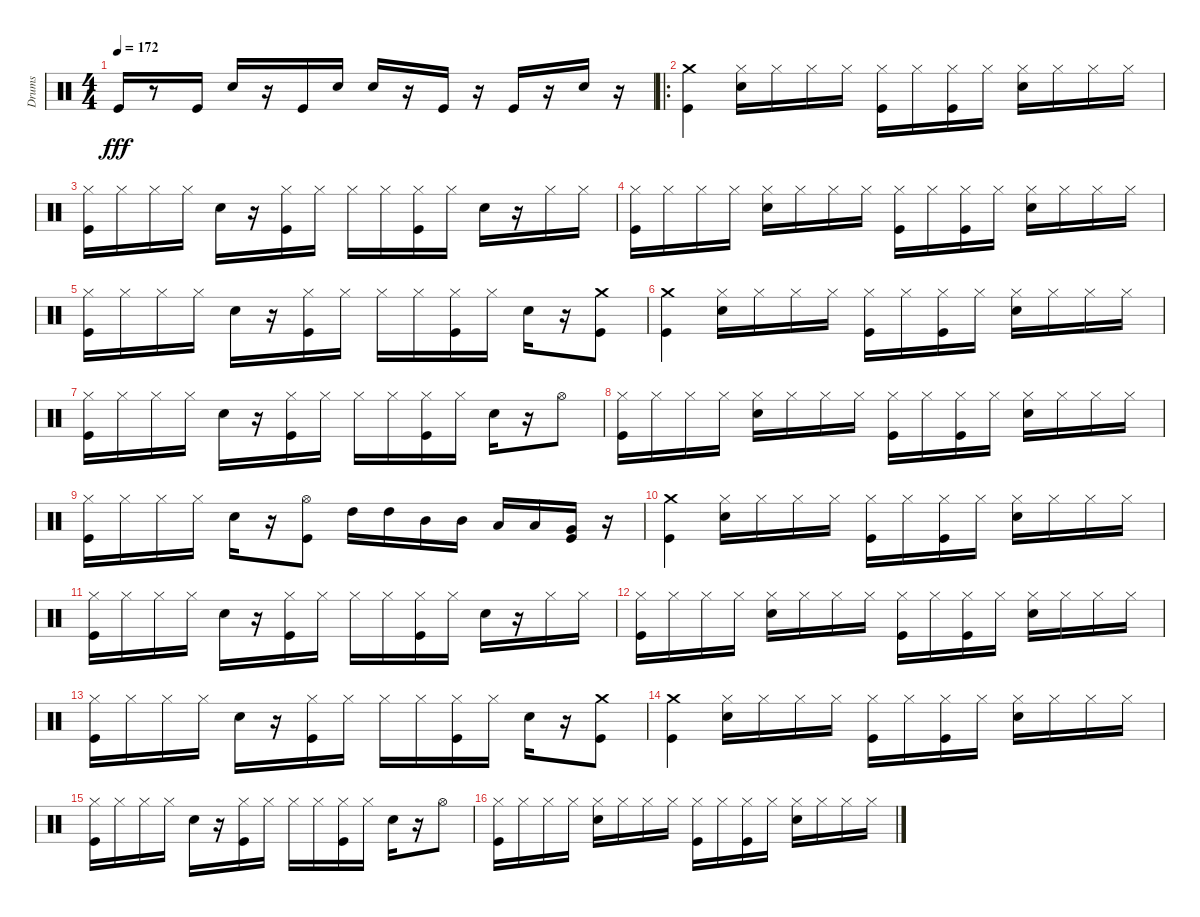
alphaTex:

\track ("Drums" "Drums") {instrument percussion}
\staff {score}
\articulation defaults
\ts (4 4)
\tempo 172
\clef neutral
\ks c "Kick (hit)".16{dy fff}
r.8 "Kick (hit)".16 "Snare (hit) 2".16 r.16 "Kick (hit)".16 "Snare (hit) 2".16 "Snare (hit) 2".16 r.16 "Kick (hit)".16 r.16 "Kick (hit)".16 r.16 "Snare (hit) 2".16 r.16 |
\ro
("Crash medium (hit)" "Kick (hit)").4 ("Hi-Hat (closed)" "Snare (hit) 2").16 "Hi-Hat (closed)".16 "Hi-Hat (closed)".16 "Hi-Hat (closed)".16 ("Hi-Hat (closed)" "Kick (hit)").16 "Hi-Hat (closed)".16 ("Hi-Hat (closed)" "Kick (hit)").16 "Hi-Hat (closed)".16 ("Hi-Hat (closed)" "Snare (hit) 2").16 "Hi-Hat (closed)".16 "Hi-Hat (closed)".16 "Hi-Hat (closed)".16 |
("Hi-Hat (closed)" "Kick (hit)").16 "Hi-Hat (closed)".16 "Hi-Hat (closed)".16 "Hi-Hat (closed)".16 "Snare (hit) 2".16 r.16 ("Hi-Hat (closed)" "Kick (hit)").16 "Hi-Hat (closed)".16 "Hi-Hat (closed)".16 "Hi-Hat (closed)".16 ("Hi-Hat (closed)" "Kick (hit)").16 "Hi-Hat (closed)".16 "Snare (hit) 2".16 r.16 "Hi-Hat (closed)".16 "Hi-Hat (closed)".16 |
("Hi-Hat (closed)" "Kick (hit)").16 "Hi-Hat (closed)".16 "Hi-Hat (closed)".16 "Hi-Hat (closed)".16 ("Hi-Hat (closed)" "Snare (hit) 2").16 "Hi-Hat (closed)".16 "Hi-Hat (closed)".16 "Hi-Hat (closed)".16 ("Hi-Hat (closed)" "Kick (hit)").16 "Hi-Hat (closed)".16 ("Hi-Hat (closed)" "Kick (hit)").16 "Hi-Hat (closed)".16 ("Hi-Hat (closed)" "Snare (hit) 2").16 "Hi-Hat (closed)".16 "Hi-Hat (closed)".16 "Hi-Hat (closed)".16 |
("Hi-Hat (closed)" "Kick (hit)").16 "Hi-Hat (closed)".16 "Hi-Hat (closed)".16 "Hi-Hat (closed)".16 "Snare (hit) 2".16 r.16 ("Hi-Hat (closed)" "Kick (hit)").16 "Hi-Hat (closed)".16 "Hi-Hat (closed)".16 "Hi-Hat (closed)".16 ("Hi-Hat (closed)" "Kick (hit)").16 "Hi-Hat (closed)".16 "Snare (hit) 2".16 r.16 ("Crash medium (hit)" "Kick (hit)").8 |
("Crash medium (hit)" "Kick (hit)").4 ("Hi-Hat (closed)" "Snare (hit) 2").16 "Hi-Hat (closed)".16 "Hi-Hat (closed)".16 "Hi-Hat (closed)".16 ("Hi-Hat (closed)" "Kick (hit)").16 "Hi-Hat (closed)".16 ("Hi-Hat (closed)" "Kick (hit)").16 "Hi-Hat (closed)".16 ("Hi-Hat (closed)" "Snare (hit) 2").16 "Hi-Hat (closed)".16 "Hi-Hat (closed)".16 "Hi-Hat (closed)".16 |
("Hi-Hat (closed)" "Kick (hit)").16 "Hi-Hat (closed)".16 "Hi-Hat (closed)".16 "Hi-Hat (closed)".16 "Snare (hit) 2".16 r.16 ("Hi-Hat (closed)" "Kick (hit)").16 "Hi-Hat (closed)".16 "Hi-Hat (closed)".16 "Hi-Hat (closed)".16 ("Hi-Hat (closed)" "Kick (hit)").16 "Hi-Hat (closed)".16 "Snare (hit) 2".16 r.16 "Hi-Hat (open)".8 |
("Hi-Hat (closed)" "Kick (hit)").16 "Hi-Hat (closed)".16 "Hi-Hat (closed)".16 "Hi-Hat (closed)".16 ("Hi-Hat (closed)" "Snare (hit) 2").16 "Hi-Hat (closed)".16 "Hi-Hat (closed)".16 "Hi-Hat (closed)".16 ("Hi-Hat (closed)" "Kick (hit)").16 "Hi-Hat (closed)".16 ("Hi-Hat (closed)" "Kick (hit)").16 "Hi-Hat (closed)".16 ("Hi-Hat (closed)" "Snare (hit) 2").16 "Hi-Hat (closed)".16 "Hi-Hat (closed)".16 "Hi-Hat (closed)".16 |
("Hi-Hat (closed)" "Kick (hit)").16 "Hi-Hat (closed)".16 "Hi-Hat (closed)".16 "Hi-Hat (closed)".16 "Snare (hit) 2".16 r.16 ("Hi-Hat (open)" "Kick (hit)").8 "High Tom (hit)".16 "High Tom (hit)".16 "Mid Tom (hit)".16 "Mid Tom (hit)".16 "Low Tom (hit)".16 "Low Tom (hit)".16 ("Kick (hit)" "Very Low Tom (hit)").16 r.16 |
("Crash medium (hit)" "Kick (hit)").4 ("Hi-Hat (closed)" "Snare (hit) 2").16 "Hi-Hat (closed)".16 "Hi-Hat (closed)".16 "Hi-Hat (closed)".16 ("Hi-Hat (closed)" "Kick (hit)").16 "Hi-Hat (closed)".16 ("Hi-Hat (closed)" "Kick (hit)").16 "Hi-Hat (closed)".16 ("Hi-Hat (closed)" "Snare (hit) 2").16 "Hi-Hat (closed)".16 "Hi-Hat (closed)".16 "Hi-Hat (closed)".16 |
("Hi-Hat (closed)" "Kick (hit)").16 "Hi-Hat (closed)".16 "Hi-Hat (closed)".16 "Hi-Hat (closed)".16 "Snare (hit) 2".16 r.16 ("Hi-Hat (closed)" "Kick (hit)").16 "Hi-Hat (closed)".16 "Hi-Hat (closed)".16 "Hi-Hat (closed)".16 ("Hi-Hat (closed)" "Kick (hit)").16 "Hi-Hat (closed)".16 "Snare (hit) 2".16 r.16 "Hi-Hat (closed)".16 "Hi-Hat (closed)".16 |
("Hi-Hat (closed)" "Kick (hit)").16 "Hi-Hat (closed)".16 "Hi-Hat (closed)".16 "Hi-Hat (closed)".16 ("Hi-Hat (closed)" "Snare (hit) 2").16 "Hi-Hat (closed)".16 "Hi-Hat (closed)".16 "Hi-Hat (closed)".16 ("Hi-Hat (closed)" "Kick (hit)").16 "Hi-Hat (closed)".16 ("Hi-Hat (closed)" "Kick (hit)").16 "Hi-Hat (closed)".16 ("Hi-Hat (closed)" "Snare (hit) 2").16 "Hi-Hat (closed)".16 "Hi-Hat (closed)".16 "Hi-Hat (closed)".16 |
("Hi-Hat (closed)" "Kick (hit)").16 "Hi-Hat (closed)".16 "Hi-Hat (closed)".16 "Hi-Hat (closed)".16 "Snare (hit) 2".16 r.16 ("Hi-Hat (closed)" "Kick (hit)").16 "Hi-Hat (closed)".16 "Hi-Hat (closed)".16 "Hi-Hat (closed)".16 ("Hi-Hat (closed)" "Kick (hit)").16 "Hi-Hat (closed)".16 "Snare (hit) 2".16 r.16 ("Crash medium (hit)" "Kick (hit)").8 |
("Crash medium (hit)" "Kick (hit)").4 ("Hi-Hat (closed)" "Snare (hit) 2").16 "Hi-Hat (closed)".16 "Hi-Hat (closed)".16 "Hi-Hat (closed)".16 ("Hi-Hat (closed)" "Kick (hit)").16 "Hi-Hat (closed)".16 ("Hi-Hat (closed)" "Kick (hit)").16 "Hi-Hat (closed)".16 ("Hi-Hat (closed)" "Snare (hit) 2").16 "Hi-Hat (closed)".16 "Hi-Hat (closed)".16 "Hi-Hat (closed)".16 |
("Hi-Hat (closed)" "Kick (hit)").16 "Hi-Hat (closed)".16 "Hi-Hat (closed)".16 "Hi-Hat (closed)".16 "Snare (hit) 2".16 r.16 ("Hi-Hat (closed)" "Kick (hit)").16 "Hi-Hat (closed)".16 "Hi-Hat (closed)".16 "Hi-Hat (closed)".16 ("Hi-Hat (closed)" "Kick (hit)").16 "Hi-Hat (closed)".16 "Snare (hit) 2".16 r.16 "Hi-Hat (open)".8 |
("Hi-Hat (closed)" "Kick (hit)").16 "Hi-Hat (closed)".16 "Hi-Hat (closed)".16 "Hi-Hat (closed)".16 ("Hi-Hat (closed)" "Snare (hit) 2").16 "Hi-Hat (closed)".16 "Hi-Hat (closed)".16 "Hi-Hat (closed)".16 ("Hi-Hat (closed)" "Kick (hit)").16 "Hi-Hat (closed)".16 ("Hi-Hat (closed)" "Kick (hit)").16 "Hi-Hat (closed)".16 ("Hi-Hat (closed)" "Snare (hit) 2").16 "Hi-Hat (closed)".16 "Hi-Hat (closed)".16 "Hi-Hat (closed)".16
